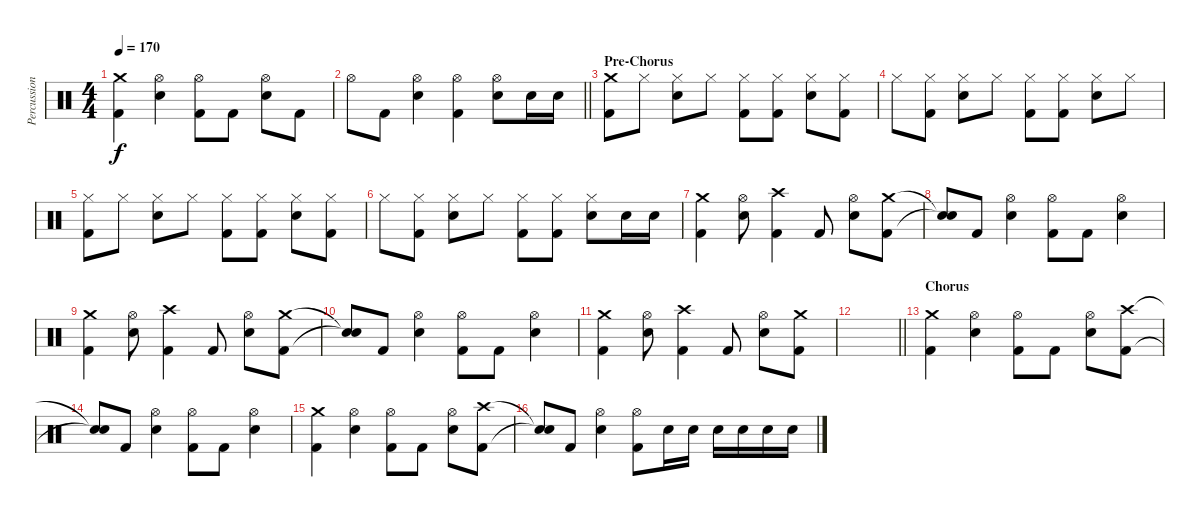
\track ("Percussions" "Percussion") {instrument percussion}
\staff {score}
\articulation defaults
\ts (4 4)
\tempo 170
\clef neutral
\ks c
("Crash medium (hit)" "Kick (hit) 2").4{dy f} ("Hi-Hat (open)" "Electric Snare (hit)").4 ("Hi-Hat (open)" "Kick (hit) 2").8 "Kick (hit) 2".8 ("Hi-Hat (open)" "Electric Snare (hit)").8 "Kick (hit) 2".8 |
\barLineRight lightlight "Hi-Hat (open)".8 "Kick (hit) 2".8
("Hi-Hat (open)" "Electric Snare (hit)").4 ("Hi-Hat (open)" "Kick (hit) 2").4 ("Hi-Hat (open)" "Electric Snare (hit)").8 "Electric Snare (hit)".16 "Electric Snare (hit)".16 |
\section ("" "Pre-Chorus")
("Crash medium (hit)" "Kick (hit) 2").8 "Hi-Hat (closed)".8 ("Hi-Hat (closed)" "Electric Snare (hit)").8 "Hi-Hat (closed)".8 ("Hi-Hat (closed)" "Kick (hit) 2").8 ("Hi-Hat (closed)" "Kick (hit) 2").8 ("Hi-Hat (closed)" "Electric Snare (hit)").8 ("Hi-Hat (closed)" "Kick (hit) 2").8 |
"Hi-Hat (closed)".8 ("Hi-Hat (closed)" "Kick (hit) 2").8 ("Hi-Hat (closed)" "Electric Snare (hit)").8 "Hi-Hat (closed)".8 ("Hi-Hat (closed)" "Kick (hit) 2").8 ("Hi-Hat (closed)" "Kick (hit) 2").8 ("Hi-Hat (closed)" "Electric Snare (hit)").8 "Hi-Hat (closed)".8 |
("Hi-Hat (closed)" "Kick (hit) 2").8 "Hi-Hat (closed)".8 ("Hi-Hat (closed)" "Electric Snare (hit)").8 "Hi-Hat (closed)".8 ("Hi-Hat (closed)" "Kick (hit) 2").8 ("Hi-Hat (closed)" "Kick (hit) 2").8 ("Hi-Hat (closed)" "Electric Snare (hit)").8 ("Hi-Hat (closed)" "Kick (hit) 2").8 |
"Hi-Hat (closed)".8 ("Hi-Hat (closed)" "Kick (hit) 2").8 ("Hi-Hat (closed)" "Electric Snare (hit)").8 "Hi-Hat (closed)".8 ("Hi-Hat (closed)" "Kick (hit) 2").8 ("Hi-Hat (closed)" "Kick (hit) 2").8 ("Hi-Hat (closed)" "Electric Snare (hit)").8 "Electric Snare (hit)".16 "Electric Snare (hit)".16 |
("Crash medium (hit)" "Kick (hit) 2").4 ("Hi-Hat (open)" "Electric Snare (hit)").8 ("Crash high (hit)" "Kick (hit) 2").4 "Kick (hit) 2".8 ("Hi-Hat (open)" "Electric Snare (hit)").8 ("Crash medium (hit)" "Kick (hit) 2").8 |
("Snare (hit)"{t} "Snare (hit)"{t}).8 "Kick (hit) 2".8 ("Hi-Hat (open)" "Electric Snare (hit)").4 ("Hi-Hat (open)" "Kick (hit) 2").8 "Kick (hit) 2".8 ("Hi-Hat (open)" "Electric Snare (hit)").4 |
("Crash medium (hit)" "Kick (hit) 2").4 ("Hi-Hat (open)" "Electric Snare (hit)").8 ("Crash high (hit)" "Kick (hit) 2").4 "Kick (hit) 2".8 ("Hi-Hat (open)" "Electric Snare (hit)").8 ("Crash medium (hit)" "Kick (hit) 2").8 |
("Snare (hit)"{t} "Snare (hit)"{t}).8 "Kick (hit) 2".8 ("Hi-Hat (open)" "Electric Snare (hit)").4 ("Hi-Hat (open)" "Kick (hit) 2").8 "Kick (hit) 2".8 ("Hi-Hat (open)" "Electric Snare (hit)").4 |
("Crash medium (hit)" "Kick (hit) 2").4 ("Hi-Hat (open)" "Electric Snare (hit)").8 ("Crash high (hit)" "Kick (hit) 2").4 "Kick (hit) 2".8 ("Hi-Hat (open)" "Electric Snare (hit)").8 ("Crash medium (hit)" "Kick (hit) 2").8 |
\barLineRight lightlight
|
\section ("" "Chorus")
("Crash medium (hit)" "Kick (hit) 2").4 ("Hi-Hat (open)" "Electric Snare (hit)").4 ("Hi-Hat (open)" "Kick (hit) 2").8 "Kick (hit) 2".8 ("Hi-Hat (open)" "Electric Snare (hit)").8 ("Crash high (hit)" "Kick (hit) 2").8 |
("Snare (hit)"{t} "Snare (hit)"{t}).8 "Kick (hit) 2".8 ("Hi-Hat (open)" "Electric Snare (hit)").4 ("Hi-Hat (open)" "Kick (hit) 2").8 "Kick (hit) 2".8 ("Hi-Hat (open)" "Electric Snare (hit)").4 |
("Crash medium (hit)" "Kick (hit) 2").4 ("Hi-Hat (open)" "Electric Snare (hit)").4 ("Hi-Hat (open)" "Kick (hit) 2").8 "Kick (hit) 2".8 ("Hi-Hat (open)" "Electric Snare (hit)").8 ("Crash high (hit)" "Kick (hit) 2").8 |
("Snare (hit)"{t} "Snare (hit)"{t}).8 "Kick (hit) 2".8 ("Hi-Hat (open)" "Electric Snare (hit)").4 ("Hi-Hat (open)" "Kick (hit) 2").8 "Electric Snare (hit)".16 "Electric Snare (hit)".16 "Electric Snare (hit)".16 "Electric Snare (hit)".16 "Electric Snare (hit)".16 "Electric Snare (hit)".16
